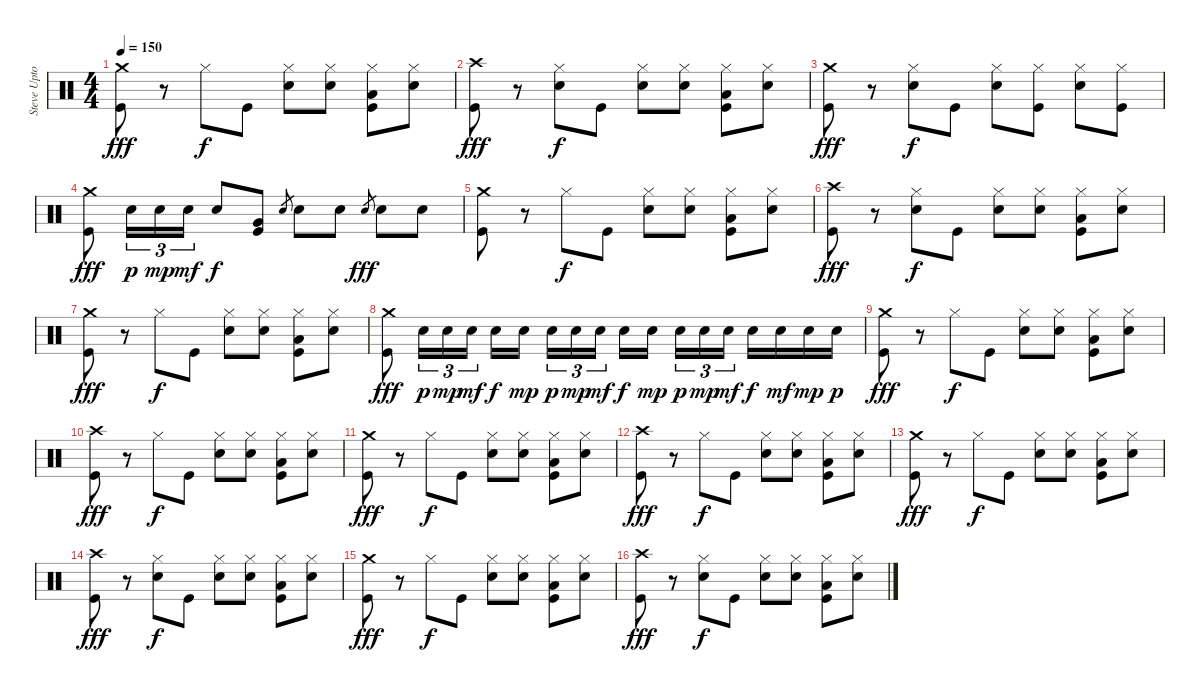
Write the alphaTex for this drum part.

\track ("Steve Upton (drums)" "Steve Upto") {instrument percussion}
\staff {score}
\articulation defaults
\ts (4 4)
\tempo 150
\clef neutral
\ks c
("Crash medium (hit)" "Kick (hit)").8{dy fff} r.8 "Hi-Hat (closed)".8{dy f} "Kick (hit)".8 ("Hi-Hat (closed)" "Electric Snare (hit)").8 ("Hi-Hat (closed)" "Electric Snare (hit)").8 ("Hi-Hat (closed)" "Low Tom (hit)" "Kick (hit)").8 ("Hi-Hat (closed)" "Electric Snare (hit)").8 |
("Crash high (hit)" "Kick (hit)").8{dy fff} r.8 ("Hi-Hat (closed)" "Electric Snare (hit)").8{dy f} "Kick (hit)".8 ("Hi-Hat (closed)" "Electric Snare (hit)").8 ("Hi-Hat (closed)" "Electric Snare (hit)").8 ("Hi-Hat (closed)" "Low Tom (hit)" "Kick (hit)").8 ("Hi-Hat (closed)" "Electric Snare (hit)").8 |
("Crash medium (hit)" "Kick (hit)").8{dy fff} r.8 ("Hi-Hat (closed)" "Electric Snare (hit)").8{dy f} "Kick (hit)".8 ("Hi-Hat (closed)" "Electric Snare (hit)").8 ("Hi-Hat (closed)" "Kick (hit)").8 ("Hi-Hat (closed)" "Electric Snare (hit)").8 ("Hi-Hat (closed)" "Kick (hit)").8 |
("Crash medium (hit)" "Kick (hit)").8{dy fff} "Electric Snare (hit)".16{tu (3 2) dy p} "Electric Snare (hit)".16{tu (3 2) dy mp} "Electric Snare (hit)".16{tu (3 2) dy mf} "Electric Snare (hit)".8{dy f} ("Very Low Tom (hit)" "Kick (hit)").8 "Electric Snare (hit)".8{gr} "Electric Snare (hit)".8 "Electric Snare (hit)".8 "Electric Snare (hit)".8{gr dy fff} "Electric Snare (hit)".8 "Electric Snare (hit)".8 |
("Crash medium (hit)" "Kick (hit)").8 r.8 "Hi-Hat (closed)".8{dy f} "Kick (hit)".8 ("Hi-Hat (closed)" "Electric Snare (hit)").8 ("Hi-Hat (closed)" "Electric Snare (hit)").8 ("Hi-Hat (closed)" "Low Tom (hit)" "Kick (hit)").8 ("Hi-Hat (closed)" "Electric Snare (hit)").8 |
("Crash high (hit)" "Kick (hit)").8{dy fff} r.8 ("Hi-Hat (closed)" "Electric Snare (hit)").8{dy f} "Kick (hit)".8 ("Hi-Hat (closed)" "Electric Snare (hit)").8 ("Hi-Hat (closed)" "Electric Snare (hit)").8 ("Hi-Hat (closed)" "Low Tom (hit)" "Kick (hit)").8 ("Hi-Hat (closed)" "Electric Snare (hit)").8 |
("Crash medium (hit)" "Kick (hit)").8{dy fff} r.8 "Hi-Hat (closed)".8{dy f} "Kick (hit)".8 ("Hi-Hat (closed)" "Electric Snare (hit)").8 ("Hi-Hat (closed)" "Electric Snare (hit)").8 ("Hi-Hat (closed)" "Low Tom (hit)" "Kick (hit)").8 ("Hi-Hat (closed)" "Electric Snare (hit)").8 |
("Crash medium (hit)" "Kick (hit)").8{dy fff} "Electric Snare (hit)".16{tu (3 2) dy p} "Electric Snare (hit)".16{tu (3 2) dy mp} "Electric Snare (hit)".16{tu (3 2) dy mf} "Electric Snare (hit)".16{dy f} "Electric Snare (hit)".16{dy mp beam splitsecondary} "Electric Snare (hit)".16{tu (3 2) dy p} "Electric Snare (hit)".16{tu (3 2) dy mp} "Electric Snare (hit)".16{tu (3 2) dy mf} "Electric Snare (hit)".16{dy f} "Electric Snare (hit)".16{dy mp beam splitsecondary} "Electric Snare (hit)".16{tu (3 2) dy p} "Electric Snare (hit)".16{tu (3 2) dy mp} "Electric Snare (hit)".16{tu (3 2) dy mf} "Electric Snare (hit)".16{dy f} "Electric Snare (hit)".16{dy mf} "Electric Snare (hit)".16{dy mp} "Electric Snare (hit)".16{dy p} |
("Crash medium (hit)" "Kick (hit)").8{dy fff} r.8 "Hi-Hat (closed)".8{dy f} "Kick (hit)".8 ("Hi-Hat (closed)" "Electric Snare (hit)").8 ("Hi-Hat (closed)" "Electric Snare (hit)").8 ("Hi-Hat (closed)" "Low Tom (hit)" "Kick (hit)").8 ("Hi-Hat (closed)" "Electric Snare (hit)").8 |
("Crash high (hit)" "Kick (hit)").8{dy fff} r.8 "Hi-Hat (closed)".8{dy f} "Kick (hit)".8 ("Hi-Hat (closed)" "Electric Snare (hit)").8 ("Hi-Hat (closed)" "Electric Snare (hit)").8 ("Hi-Hat (closed)" "Low Tom (hit)" "Kick (hit)").8 ("Hi-Hat (closed)" "Electric Snare (hit)").8 |
("Crash medium (hit)" "Kick (hit)").8{dy fff} r.8 "Hi-Hat (closed)".8{dy f} "Kick (hit)".8 ("Hi-Hat (closed)" "Electric Snare (hit)").8 ("Hi-Hat (closed)" "Electric Snare (hit)").8 ("Hi-Hat (closed)" "Low Tom (hit)" "Kick (hit)").8 ("Hi-Hat (closed)" "Electric Snare (hit)").8 |
("Crash high (hit)" "Kick (hit)").8{dy fff} r.8 "Hi-Hat (closed)".8{dy f} "Kick (hit)".8 ("Hi-Hat (closed)" "Electric Snare (hit)").8 ("Hi-Hat (closed)" "Electric Snare (hit)").8 ("Hi-Hat (closed)" "Low Tom (hit)" "Kick (hit)").8 ("Hi-Hat (closed)" "Electric Snare (hit)").8 |
("Crash medium (hit)" "Kick (hit)").8{dy fff} r.8 "Hi-Hat (closed)".8{dy f} "Kick (hit)".8 ("Hi-Hat (closed)" "Electric Snare (hit)").8 ("Hi-Hat (closed)" "Electric Snare (hit)").8 ("Hi-Hat (closed)" "Low Tom (hit)" "Kick (hit)").8 ("Hi-Hat (closed)" "Electric Snare (hit)").8 |
("Crash high (hit)" "Kick (hit)").8{dy fff} r.8 ("Hi-Hat (closed)" "Electric Snare (hit)").8{dy f} "Kick (hit)".8 ("Hi-Hat (closed)" "Electric Snare (hit)").8 ("Hi-Hat (closed)" "Electric Snare (hit)").8 ("Hi-Hat (closed)" "Low Tom (hit)" "Kick (hit)").8 ("Hi-Hat (closed)" "Electric Snare (hit)").8 |
("Crash medium (hit)" "Kick (hit)").8{dy fff} r.8 "Hi-Hat (closed)".8{dy f} "Kick (hit)".8 ("Hi-Hat (closed)" "Electric Snare (hit)").8 ("Hi-Hat (closed)" "Electric Snare (hit)").8 ("Hi-Hat (closed)" "Low Tom (hit)" "Kick (hit)").8 ("Hi-Hat (closed)" "Electric Snare (hit)").8 |
("Crash high (hit)" "Kick (hit)").8{dy fff} r.8 ("Hi-Hat (closed)" "Electric Snare (hit)").8{dy f} "Kick (hit)".8 ("Hi-Hat (closed)" "Electric Snare (hit)").8 ("Hi-Hat (closed)" "Electric Snare (hit)").8 ("Hi-Hat (closed)" "Low Tom (hit)" "Kick (hit)").8 ("Hi-Hat (closed)" "Electric Snare (hit)").8
